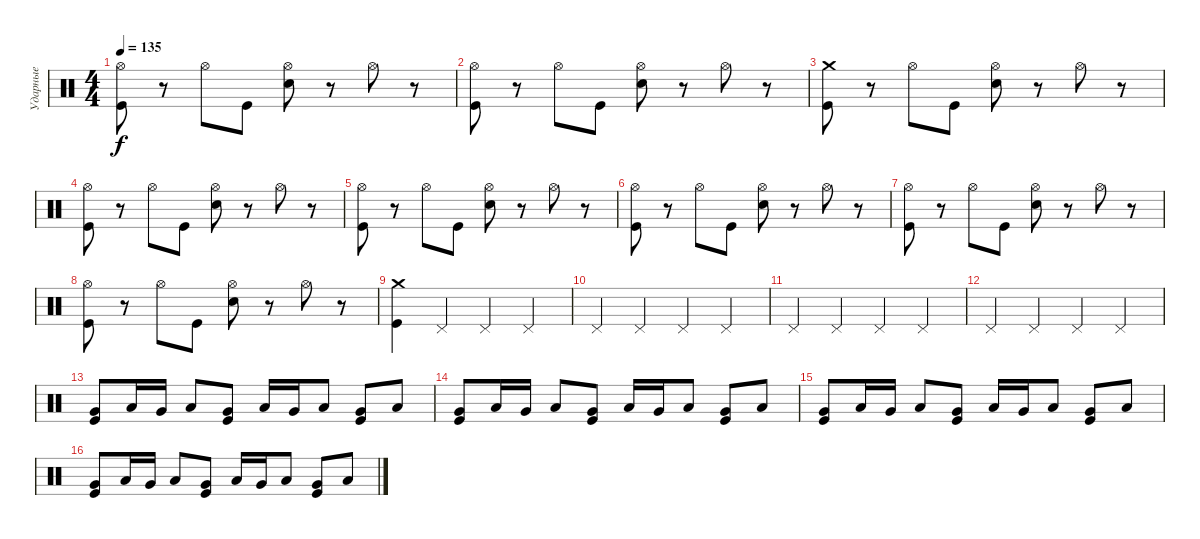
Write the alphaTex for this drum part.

\track ("Ударные" "Ударные") {instrument percussion}
\staff {score}
\articulation defaults
\ts (4 4)
\tempo 135
\clef neutral
\ks c
("Hi-Hat (open)" "Kick (hit)").8{dy f} r.8 "Hi-Hat (open)".8 "Kick (hit)".8 ("Hi-Hat (open)" "Electric Snare (hit)").8 r.8 "Hi-Hat (open)".8 r.8 |
("Hi-Hat (open)" "Kick (hit)").8 r.8 "Hi-Hat (open)".8 "Kick (hit)".8 ("Hi-Hat (open)" "Electric Snare (hit)").8 r.8 "Hi-Hat (open)".8 r.8 |
("Crash medium (hit)" "Kick (hit)").8 r.8 "Hi-Hat (open)".8 "Kick (hit)".8 ("Hi-Hat (open)" "Electric Snare (hit)").8 r.8 "Hi-Hat (open)".8 r.8 |
("Hi-Hat (open)" "Kick (hit)").8 r.8 "Hi-Hat (open)".8 "Kick (hit)".8 ("Hi-Hat (open)" "Electric Snare (hit)").8 r.8 "Hi-Hat (open)".8 r.8 |
("Hi-Hat (open)" "Kick (hit)").8 r.8 "Hi-Hat (open)".8 "Kick (hit)".8 ("Hi-Hat (open)" "Electric Snare (hit)").8 r.8 "Hi-Hat (open)".8 r.8 |
("Hi-Hat (open)" "Kick (hit)").8 r.8 "Hi-Hat (open)".8 "Kick (hit)".8 ("Hi-Hat (open)" "Electric Snare (hit)").8 r.8 "Hi-Hat (open)".8 r.8 |
("Hi-Hat (open)" "Kick (hit)").8 r.8 "Hi-Hat (open)".8 "Kick (hit)".8 ("Hi-Hat (open)" "Electric Snare (hit)").8 r.8 "Hi-Hat (open)".8 r.8 |
("Hi-Hat (open)" "Kick (hit)").8 r.8 "Hi-Hat (open)".8 "Kick (hit)".8 ("Hi-Hat (open)" "Electric Snare (hit)").8 r.8 "Hi-Hat (open)".8 r.8 |
("Crash medium (hit)" "Kick (hit)").4 "Pedal Hi-Hat (hit)".4 "Pedal Hi-Hat (hit)".4 "Pedal Hi-Hat (hit)".4 |
"Pedal Hi-Hat (hit)".4 "Pedal Hi-Hat (hit)".4 "Pedal Hi-Hat (hit)".4 "Pedal Hi-Hat (hit)".4 |
"Pedal Hi-Hat (hit)".4 "Pedal Hi-Hat (hit)".4 "Pedal Hi-Hat (hit)".4 "Pedal Hi-Hat (hit)".4 |
"Pedal Hi-Hat (hit)".4 "Pedal Hi-Hat (hit)".4 "Pedal Hi-Hat (hit)".4 "Pedal Hi-Hat (hit)".4 |
("Very Low Tom (hit)" "Kick (hit)").8 "Low Tom (hit)".16 "Very Low Tom (hit)".16 "Low Floor Tom (hit)".8 ("Very Low Tom (hit)" "Kick (hit)").8 "Low Tom (hit)".16 "Very Low Tom (hit)".16 "Low Floor Tom (hit)".8 ("Very Low Tom (hit)" "Kick (hit)").8 "Low Floor Tom (hit)".8 |
("Very Low Tom (hit)" "Kick (hit)").8 "Low Tom (hit)".16 "Very Low Tom (hit)".16 "Low Floor Tom (hit)".8 ("Very Low Tom (hit)" "Kick (hit)").8 "Low Tom (hit)".16 "Very Low Tom (hit)".16 "Low Floor Tom (hit)".8 ("Very Low Tom (hit)" "Kick (hit)").8 "Low Floor Tom (hit)".8 |
("Very Low Tom (hit)" "Kick (hit)").8 "Low Tom (hit)".16 "Very Low Tom (hit)".16 "Low Floor Tom (hit)".8 ("Very Low Tom (hit)" "Kick (hit)").8 "Low Tom (hit)".16 "Very Low Tom (hit)".16 "Low Floor Tom (hit)".8 ("Very Low Tom (hit)" "Kick (hit)").8 "Low Floor Tom (hit)".8 |
("Very Low Tom (hit)" "Kick (hit)").8 "Low Tom (hit)".16 "Very Low Tom (hit)".16 "Low Floor Tom (hit)".8 ("Very Low Tom (hit)" "Kick (hit)").8 "Low Tom (hit)".16 "Very Low Tom (hit)".16 "Low Floor Tom (hit)".8 ("Very Low Tom (hit)" "Kick (hit)").8 "Low Floor Tom (hit)".8
